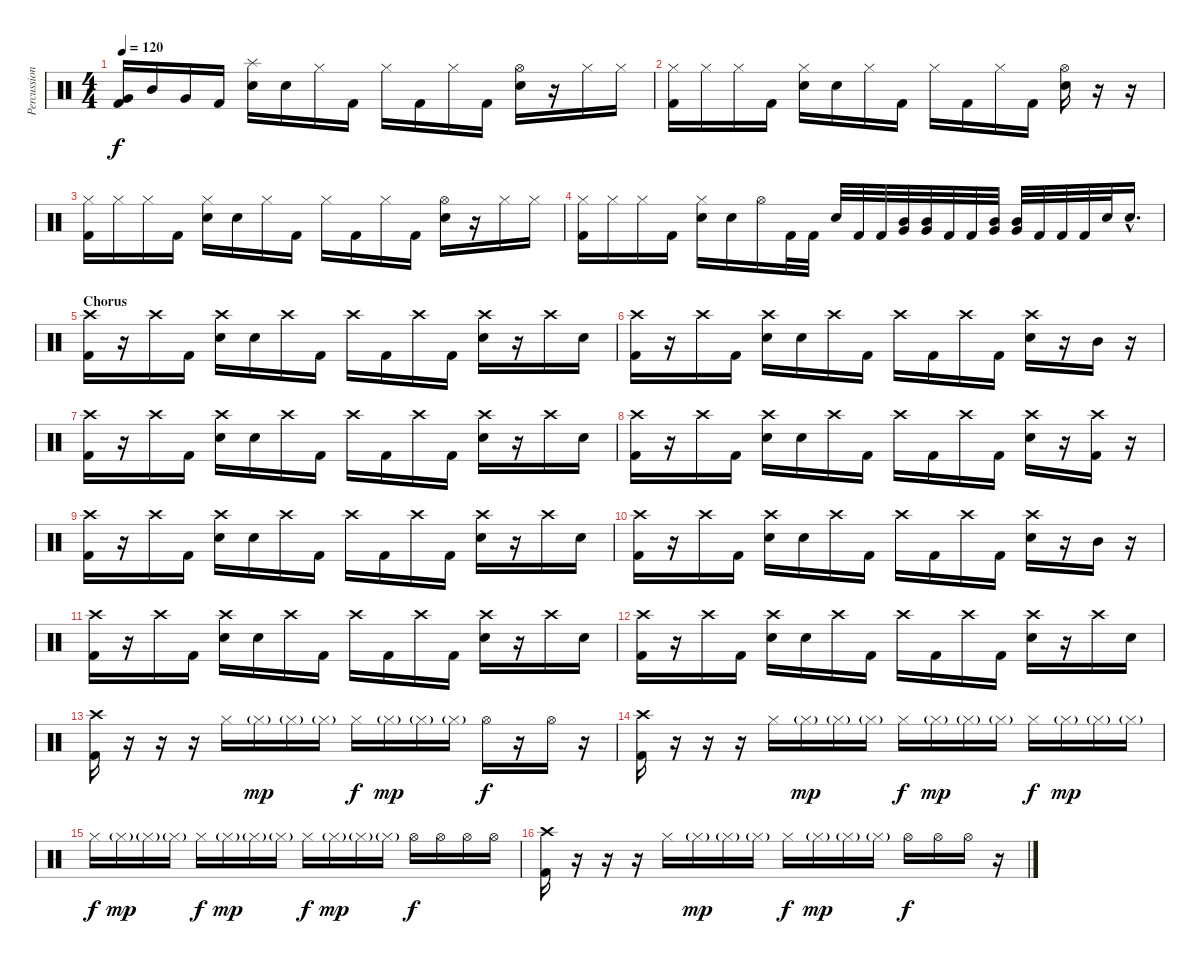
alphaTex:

\track ("Percussion" "Percussion") {instrument percussion}
\staff {score}
\articulation defaults
\ts (4 4)
\tempo 120
\clef neutral
\ks c
("Very Low Tom (hit)" "Kick (hit) 2").16{dy f} "Mid Tom (hit)".16 "Very Low Tom (hit)".16 "Kick (hit) 2".16 ("Splash (hit)" "Electric Snare (hit)").16 "Electric Snare (hit)".16 "Hi-Hat (closed)".16 "Kick (hit) 2".16 "Hi-Hat (closed)".16 "Kick (hit) 2".16 "Hi-Hat (closed)".16 "Kick (hit) 2".16 ("Hi-Hat (open)" "Electric Snare (hit)").16 r.16 "Hi-Hat (closed)".16 "Hi-Hat (closed)".16 |
("Hi-Hat (closed)" "Kick (hit) 2").16 "Hi-Hat (closed)".16 "Hi-Hat (closed)".16 "Kick (hit) 2".16 ("Hi-Hat (closed)" "Electric Snare (hit)").16 "Electric Snare (hit)".16 "Hi-Hat (closed)".16 "Kick (hit) 2".16 "Hi-Hat (closed)".16 "Kick (hit) 2".16 "Hi-Hat (closed)".16 "Kick (hit) 2".16 ("Hi-Hat (open)" "Electric Snare (hit)").16 r.16 r.16 |
("Hi-Hat (closed)" "Kick (hit) 2").16 "Hi-Hat (closed)".16 "Hi-Hat (closed)".16 "Kick (hit) 2".16 ("Hi-Hat (closed)" "Electric Snare (hit)").16 "Electric Snare (hit)".16 "Hi-Hat (closed)".16 "Kick (hit) 2".16 "Hi-Hat (closed)".16 "Kick (hit) 2".16 "Hi-Hat (closed)".16 "Kick (hit) 2".16 ("Hi-Hat (open)" "Electric Snare (hit)").16 r.16 "Hi-Hat (closed)".16 "Hi-Hat (closed)".16 |
("Hi-Hat (closed)" "Kick (hit) 2").16 "Hi-Hat (closed)".16 "Hi-Hat (closed)".16 "Kick (hit) 2".16 ("Hi-Hat (closed)" "Electric Snare (hit)").16 "Electric Snare (hit)".16 "Hi-Hat (open)".16 "Kick (hit) 2".32 "Kick (hit) 2".32 "Electric Snare (hit)"{tr (40 64)}.32 "Kick (hit) 2".32 "Kick (hit) 2".32 ("Mid Tom (hit)" "Very Low Tom (hit)").32 ("Mid Tom (hit)" "Very Low Tom (hit)").32 "Kick (hit) 2".32 "Kick (hit) 2".32 ("Mid Tom (hit)" "Very Low Tom (hit)").32 ("Mid Tom (hit)" "Very Low Tom (hit)").32 "Kick (hit) 2".32 "Kick (hit) 2".32 "Kick (hit) 2".32 "Electric Snare (hit)".32 "Electric Snare (hit)"{hac}.16{d} |
\section ("" "Chorus")
("Crash high (hit)" "Kick (hit) 2").16 r.16 "Crash high (hit)".16 "Kick (hit) 2".16 ("Crash high (hit)" "Electric Snare (hit)").16 "Electric Snare (hit)".16 "Crash high (hit)".16 "Kick (hit) 2".16 "Crash high (hit)".16 "Kick (hit) 2".16 "Crash high (hit)".16 "Kick (hit) 2".16 ("Crash high (hit)" "Electric Snare (hit)").16 r.16 "Crash high (hit)".16 "Electric Snare (hit)".16 |
("Crash high (hit)" "Kick (hit) 2").16 r.16 "Crash high (hit)".16 "Kick (hit) 2".16 ("Crash high (hit)" "Electric Snare (hit)").16 "Electric Snare (hit)".16 "Crash high (hit)".16 "Kick (hit) 2".16 "Crash high (hit)".16 "Kick (hit) 2".16 "Crash high (hit)".16 "Kick (hit) 2".16 ("Crash high (hit)" "Electric Snare (hit)").16 r.16 "Mid Tom (hit)".16 r.16 |
("Crash high (hit)" "Kick (hit) 2").16 r.16 "Crash high (hit)".16 "Kick (hit) 2".16 ("Crash high (hit)" "Electric Snare (hit)").16 "Electric Snare (hit)".16 "Crash high (hit)".16 "Kick (hit) 2".16 "Crash high (hit)".16 "Kick (hit) 2".16 "Crash high (hit)".16 "Kick (hit) 2".16 ("Crash high (hit)" "Electric Snare (hit)").16 r.16 "Crash high (hit)".16 "Electric Snare (hit)".16 |
("Crash high (hit)" "Kick (hit) 2").16 r.16 "Crash high (hit)".16 "Kick (hit) 2".16 ("Crash high (hit)" "Electric Snare (hit)").16 "Electric Snare (hit)".16 "Crash high (hit)".16 "Kick (hit) 2".16 "Crash high (hit)".16 "Kick (hit) 2".16 "Crash high (hit)".16 "Kick (hit) 2".16 ("Crash high (hit)" "Electric Snare (hit)").16 r.16 ("Crash high (hit)" "Kick (hit) 2").16 r.16 |
("Crash high (hit)" "Kick (hit) 2").16 r.16 "Crash high (hit)".16 "Kick (hit) 2".16 ("Crash high (hit)" "Electric Snare (hit)").16 "Electric Snare (hit)".16 "Crash high (hit)".16 "Kick (hit) 2".16 "Crash high (hit)".16 "Kick (hit) 2".16 "Crash high (hit)".16 "Kick (hit) 2".16 ("Crash high (hit)" "Electric Snare (hit)").16 r.16 "Crash high (hit)".16 "Electric Snare (hit)".16 |
("Crash high (hit)" "Kick (hit) 2").16 r.16 "Crash high (hit)".16 "Kick (hit) 2".16 ("Crash high (hit)" "Electric Snare (hit)").16 "Electric Snare (hit)".16 "Crash high (hit)".16 "Kick (hit) 2".16 "Crash high (hit)".16 "Kick (hit) 2".16 "Crash high (hit)".16 "Kick (hit) 2".16 ("Crash high (hit)" "Electric Snare (hit)").16 r.16 "Mid Tom (hit)".16 r.16 |
("Crash high (hit)" "Kick (hit) 2").16 r.16 "Crash high (hit)".16 "Kick (hit) 2".16 ("Crash high (hit)" "Electric Snare (hit)").16 "Electric Snare (hit)".16 "Crash high (hit)".16 "Kick (hit) 2".16 "Crash high (hit)".16 "Kick (hit) 2".16 "Crash high (hit)".16 "Kick (hit) 2".16 ("Crash high (hit)" "Electric Snare (hit)").16 r.16 "Crash high (hit)".16 "Electric Snare (hit)".16 |
("Crash high (hit)" "Kick (hit) 2").16 r.16 "Crash high (hit)".16 "Kick (hit) 2".16 ("Crash high (hit)" "Electric Snare (hit)").16 "Electric Snare (hit)".16 "Crash high (hit)".16 "Kick (hit) 2".16 "Crash high (hit)".16 "Kick (hit) 2".16 "Crash high (hit)".16 "Kick (hit) 2".16 ("Crash high (hit)" "Electric Snare (hit)").16 r.16 "Crash high (hit)".16 "Electric Snare (hit)".16 |
("Crash high (hit)" "Kick (hit) 2").16 r.16 r.16 r.16 "Hi-Hat (closed)".16 "Hi-Hat (closed)"{g}.16{dy mp} "Hi-Hat (closed)"{g}.16 "Hi-Hat (closed)"{g}.16 "Hi-Hat (closed)".16{dy f} "Hi-Hat (closed)"{g}.16{dy mp} "Hi-Hat (closed)"{g}.16 "Hi-Hat (closed)"{g}.16 "Hi-Hat (open)".16{dy f} r.16 "Hi-Hat (open)".16 r.16 |
("Crash high (hit)" "Kick (hit) 2").16 r.16 r.16 r.16 "Hi-Hat (closed)".16 "Hi-Hat (closed)"{g}.16{dy mp} "Hi-Hat (closed)"{g}.16 "Hi-Hat (closed)"{g}.16 "Hi-Hat (closed)".16{dy f} "Hi-Hat (closed)"{g}.16{dy mp} "Hi-Hat (closed)"{g}.16 "Hi-Hat (closed)"{g}.16 "Hi-Hat (closed)".16{dy f} "Hi-Hat (closed)"{g}.16{dy mp} "Hi-Hat (closed)"{g}.16 "Hi-Hat (closed)"{g}.16 |
"Hi-Hat (closed)".16{dy f} "Hi-Hat (closed)"{g}.16{dy mp} "Hi-Hat (closed)"{g}.16 "Hi-Hat (closed)"{g}.16 "Hi-Hat (closed)".16{dy f} "Hi-Hat (closed)"{g}.16{dy mp} "Hi-Hat (closed)"{g}.16 "Hi-Hat (closed)"{g}.16 "Hi-Hat (closed)".16{dy f} "Hi-Hat (closed)"{g}.16{dy mp} "Hi-Hat (closed)"{g}.16 "Hi-Hat (closed)"{g}.16 "Hi-Hat (open)".16{dy f} "Hi-Hat (open)".16 "Hi-Hat (open)".16 "Hi-Hat (open)".16 |
("Crash high (hit)" "Kick (hit) 2").16 r.16 r.16 r.16 "Hi-Hat (closed)".16 "Hi-Hat (closed)"{g}.16{dy mp} "Hi-Hat (closed)"{g}.16 "Hi-Hat (closed)"{g}.16 "Hi-Hat (closed)".16{dy f} "Hi-Hat (closed)"{g}.16{dy mp} "Hi-Hat (closed)"{g}.16 "Hi-Hat (closed)"{g}.16 "Hi-Hat (open)".16{dy f} "Hi-Hat (open)".16 "Hi-Hat (open)".16 r.16
